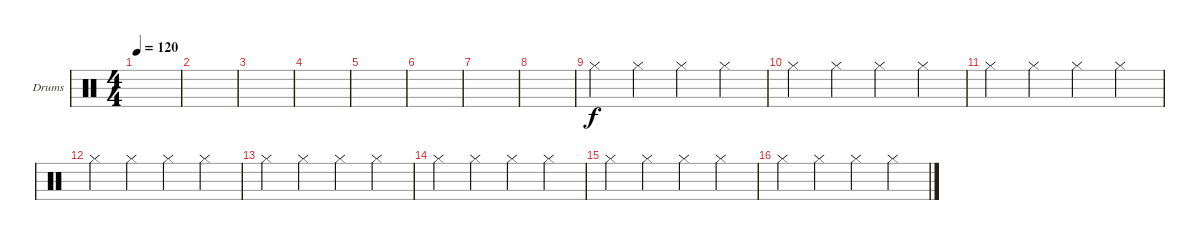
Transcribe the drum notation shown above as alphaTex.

\defaultSystemsLayout 4
\bracketExtendMode groupsimilarinstruments
\firstSystemTrackNameOrientation horizontal
\otherSystemsTrackNameOrientation horizontal
\track ("Пашок" "Drums") {instrument percussion}
\staff {score}
\articulation defaults
\ts (4 4)
\tempo 120
\clef neutral
\ks c
|
|
|
|
|
|
|
|
"Hi-Hat (closed)".4 "Hi-Hat (closed)".4 "Hi-Hat (closed)".4 "Hi-Hat (closed)".4 |
"Hi-Hat (closed)".4 "Hi-Hat (closed)".4 "Hi-Hat (closed)".4 "Hi-Hat (closed)".4 |
"Hi-Hat (closed)".4 "Hi-Hat (closed)".4 "Hi-Hat (closed)".4 "Hi-Hat (closed)".4 |
"Hi-Hat (closed)".4 "Hi-Hat (closed)".4 "Hi-Hat (closed)".4 "Hi-Hat (closed)".4 |
"Hi-Hat (closed)".4 "Hi-Hat (closed)".4 "Hi-Hat (closed)".4 "Hi-Hat (closed)".4 |
"Hi-Hat (closed)".4 "Hi-Hat (closed)".4 "Hi-Hat (closed)".4 "Hi-Hat (closed)".4 |
"Hi-Hat (closed)".4 "Hi-Hat (closed)".4 "Hi-Hat (closed)".4 "Hi-Hat (closed)".4 |
"Hi-Hat (closed)".4 "Hi-Hat (closed)".4 "Hi-Hat (closed)".4 "Hi-Hat (closed)".4
